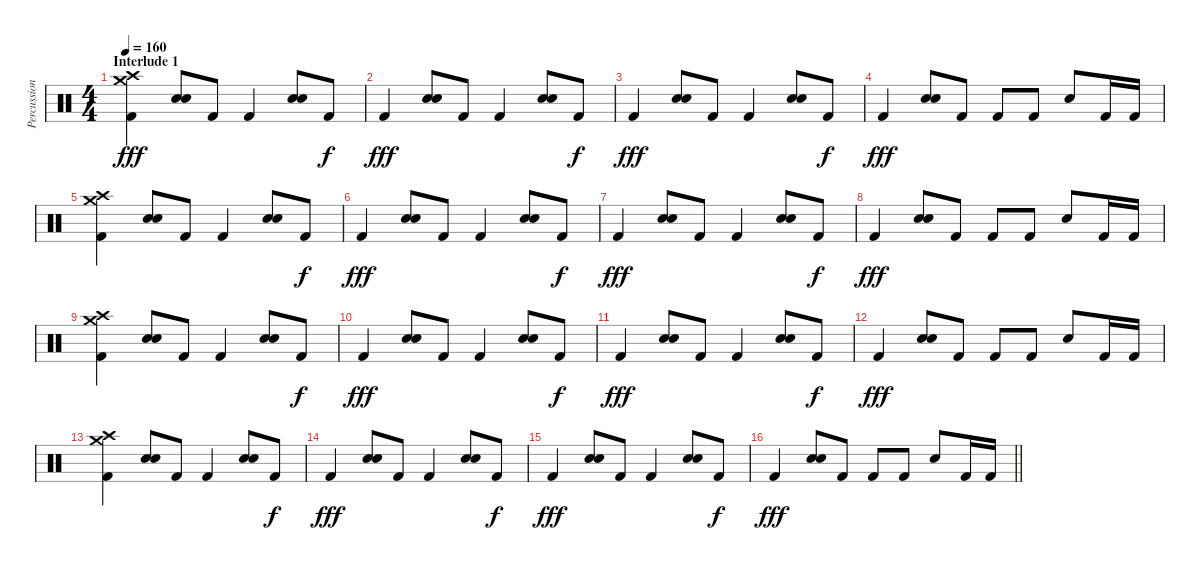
\track ("Percussion" "Percussion") {instrument percussion}
\staff {score}
\articulation defaults
\ts (4 4)
\section ("" "Interlude 1")
\tempo 160
\clef neutral
\ks c
("Crash high (hit)" "Kick (hit) 2" "Crash medium (hit)").4{dy fff} ("Snare (hit) 2" "Electric Snare (hit)").8 "Kick (hit) 2".8 "Kick (hit) 2".4 ("Snare (hit) 2" "Electric Snare (hit)").8 "Kick (hit) 2".8{dy f} |
"Kick (hit) 2".4{dy fff} ("Snare (hit) 2" "Electric Snare (hit)").8 "Kick (hit) 2".8 "Kick (hit) 2".4 ("Snare (hit) 2" "Electric Snare (hit)").8 "Kick (hit) 2".8{dy f} |
"Kick (hit) 2".4{dy fff} ("Snare (hit) 2" "Electric Snare (hit)").8 "Kick (hit) 2".8 "Kick (hit) 2".4 ("Snare (hit) 2" "Electric Snare (hit)").8 "Kick (hit) 2".8{dy f} |
"Kick (hit) 2".4{dy fff} ("Snare (hit) 2" "Electric Snare (hit)").8 "Kick (hit) 2".8 "Kick (hit) 2".8 "Kick (hit) 2".8 "Snare (hit) 2".8 "Kick (hit) 2".16 "Kick (hit) 2".16 |
("Crash high (hit)" "Kick (hit) 2" "Crash medium (hit)").4 ("Snare (hit) 2" "Electric Snare (hit)").8 "Kick (hit) 2".8 "Kick (hit) 2".4 ("Snare (hit) 2" "Electric Snare (hit)").8 "Kick (hit) 2".8{dy f} |
"Kick (hit) 2".4{dy fff} ("Snare (hit) 2" "Electric Snare (hit)").8 "Kick (hit) 2".8 "Kick (hit) 2".4 ("Snare (hit) 2" "Electric Snare (hit)").8 "Kick (hit) 2".8{dy f} |
"Kick (hit) 2".4{dy fff} ("Snare (hit) 2" "Electric Snare (hit)").8 "Kick (hit) 2".8 "Kick (hit) 2".4 ("Snare (hit) 2" "Electric Snare (hit)").8 "Kick (hit) 2".8{dy f} |
"Kick (hit) 2".4{dy fff} ("Snare (hit) 2" "Electric Snare (hit)").8 "Kick (hit) 2".8 "Kick (hit) 2".8 "Kick (hit) 2".8 "Snare (hit) 2".8 "Kick (hit) 2".16 "Kick (hit) 2".16 |
("Crash high (hit)" "Kick (hit) 2" "Crash medium (hit)").4 ("Snare (hit) 2" "Electric Snare (hit)").8 "Kick (hit) 2".8 "Kick (hit) 2".4 ("Snare (hit) 2" "Electric Snare (hit)").8 "Kick (hit) 2".8{dy f} |
"Kick (hit) 2".4{dy fff} ("Snare (hit) 2" "Electric Snare (hit)").8 "Kick (hit) 2".8 "Kick (hit) 2".4 ("Snare (hit) 2" "Electric Snare (hit)").8 "Kick (hit) 2".8{dy f} |
"Kick (hit) 2".4{dy fff} ("Snare (hit) 2" "Electric Snare (hit)").8 "Kick (hit) 2".8 "Kick (hit) 2".4 ("Snare (hit) 2" "Electric Snare (hit)").8 "Kick (hit) 2".8{dy f} |
"Kick (hit) 2".4{dy fff} ("Snare (hit) 2" "Electric Snare (hit)").8 "Kick (hit) 2".8 "Kick (hit) 2".8 "Kick (hit) 2".8 "Snare (hit) 2".8 "Kick (hit) 2".16 "Kick (hit) 2".16 |
("Crash high (hit)" "Kick (hit) 2" "Crash medium (hit)").4 ("Snare (hit) 2" "Electric Snare (hit)").8 "Kick (hit) 2".8 "Kick (hit) 2".4 ("Snare (hit) 2" "Electric Snare (hit)").8 "Kick (hit) 2".8{dy f} |
"Kick (hit) 2".4{dy fff} ("Snare (hit) 2" "Electric Snare (hit)").8 "Kick (hit) 2".8 "Kick (hit) 2".4 ("Snare (hit) 2" "Electric Snare (hit)").8 "Kick (hit) 2".8{dy f} |
"Kick (hit) 2".4{dy fff} ("Snare (hit) 2" "Electric Snare (hit)").8 "Kick (hit) 2".8 "Kick (hit) 2".4 ("Snare (hit) 2" "Electric Snare (hit)").8 "Kick (hit) 2".8{dy f} |
\barLineRight lightlight "Kick (hit) 2".4{dy fff}
("Snare (hit) 2" "Electric Snare (hit)").8 "Kick (hit) 2".8 "Kick (hit) 2".8 "Kick (hit) 2".8 "Snare (hit) 2".8 "Kick (hit) 2".16 "Kick (hit) 2".16
